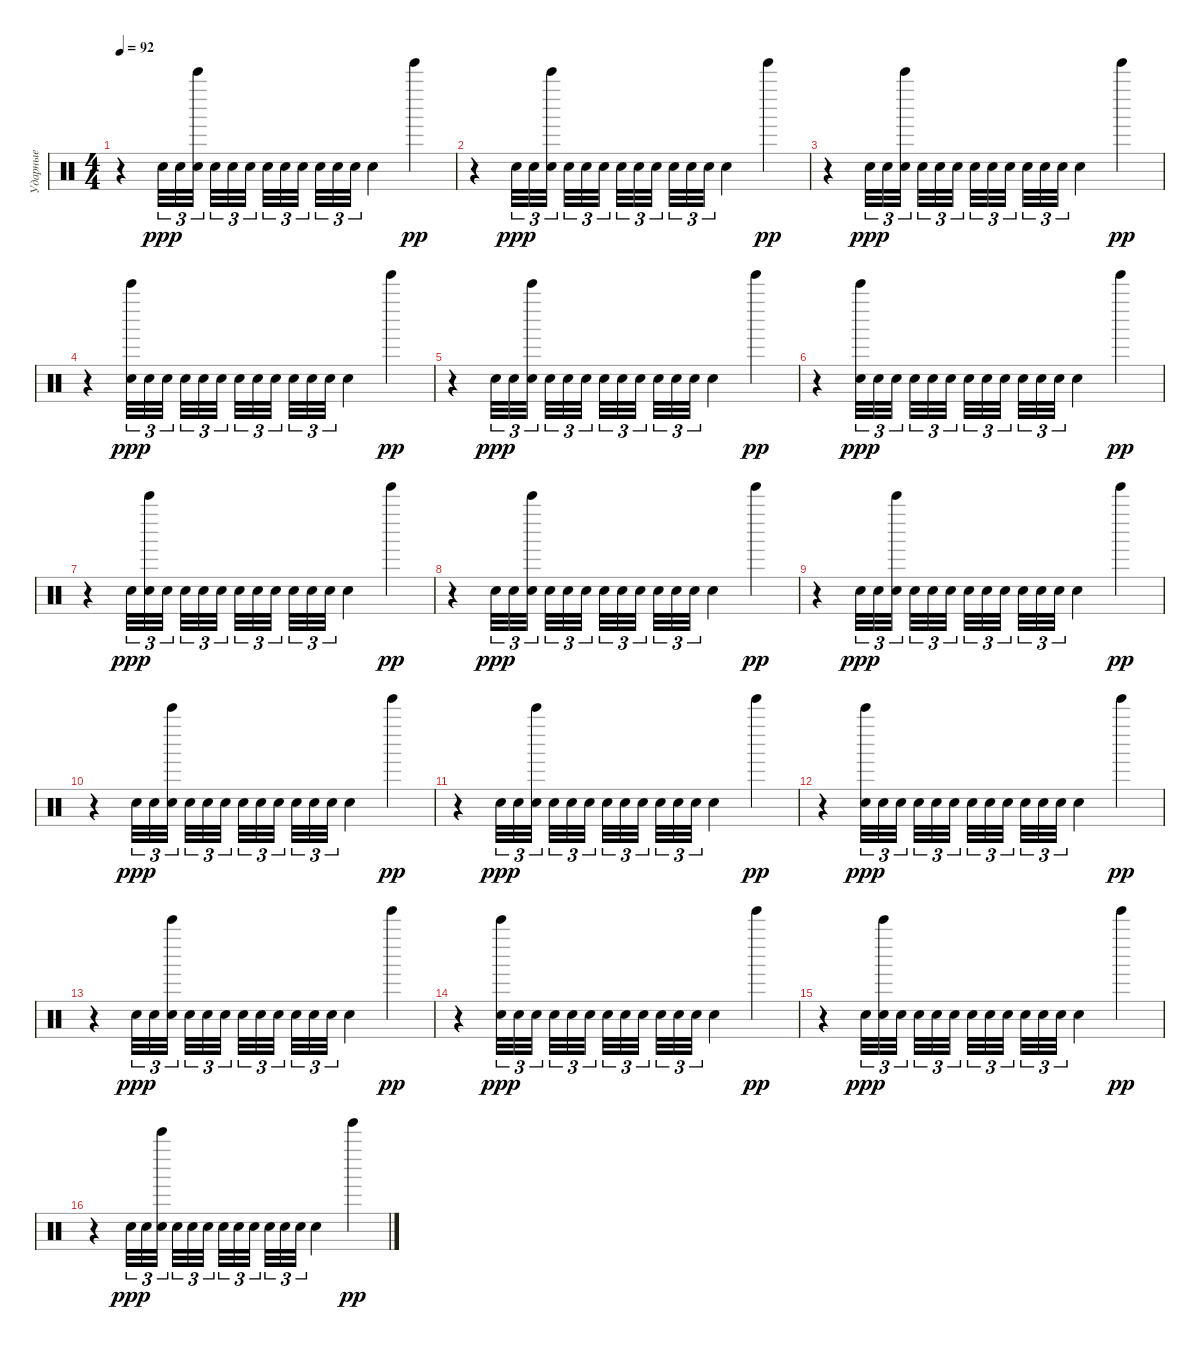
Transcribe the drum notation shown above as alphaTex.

\track ("Ударные" "Ударные") {instrument percussion}
\staff {score}
\articulation defaults
\ts (4 4)
\tempo 92
\clef neutral
\ks c
r.4{dy pp} "Electric Snare (hit)".32{tu (3 2) dy ppp} "Electric Snare (hit)".32{tu (3 2)} ("Bell Tree (hit)" "Electric Snare (hit)").32{tu (3 2) beam splitsecondary} "Electric Snare (hit)".32{tu (3 2)} "Electric Snare (hit)".32{tu (3 2)} "Electric Snare (hit)".32{tu (3 2) beam splitsecondary} "Electric Snare (hit)".32{tu (3 2)} "Electric Snare (hit)".32{tu (3 2)} "Electric Snare (hit)".32{tu (3 2) beam splitsecondary} "Electric Snare (hit)".32{tu (3 2)} "Electric Snare (hit)".32{tu (3 2)} "Electric Snare (hit)".32{tu (3 2)} "Electric Snare (hit)".4 "Tinkle Bell (hit)".4{dy pp} |
r.4 "Electric Snare (hit)".32{tu (3 2) dy ppp} "Electric Snare (hit)".32{tu (3 2)} ("Bell Tree (hit)" "Electric Snare (hit)").32{tu (3 2) beam splitsecondary} "Electric Snare (hit)".32{tu (3 2)} "Electric Snare (hit)".32{tu (3 2)} "Electric Snare (hit)".32{tu (3 2) beam splitsecondary} "Electric Snare (hit)".32{tu (3 2)} "Electric Snare (hit)".32{tu (3 2)} "Electric Snare (hit)".32{tu (3 2) beam splitsecondary} "Electric Snare (hit)".32{tu (3 2)} "Electric Snare (hit)".32{tu (3 2)} "Electric Snare (hit)".32{tu (3 2)} "Electric Snare (hit)".4 "Tinkle Bell (hit)".4{dy pp} |
r.4 "Electric Snare (hit)".32{tu (3 2) dy ppp} "Electric Snare (hit)".32{tu (3 2)} ("Bell Tree (hit)" "Electric Snare (hit)").32{tu (3 2) beam splitsecondary} "Electric Snare (hit)".32{tu (3 2)} "Electric Snare (hit)".32{tu (3 2)} "Electric Snare (hit)".32{tu (3 2) beam splitsecondary} "Electric Snare (hit)".32{tu (3 2)} "Electric Snare (hit)".32{tu (3 2)} "Electric Snare (hit)".32{tu (3 2) beam splitsecondary} "Electric Snare (hit)".32{tu (3 2)} "Electric Snare (hit)".32{tu (3 2)} "Electric Snare (hit)".32{tu (3 2)} "Electric Snare (hit)".4 "Tinkle Bell (hit)".4{dy pp} |
r.4 ("Bell Tree (hit)" "Electric Snare (hit)").32{tu (3 2) dy ppp} "Electric Snare (hit)".32{tu (3 2)} "Electric Snare (hit)".32{tu (3 2) beam splitsecondary} "Electric Snare (hit)".32{tu (3 2)} "Electric Snare (hit)".32{tu (3 2)} "Electric Snare (hit)".32{tu (3 2) beam splitsecondary} "Electric Snare (hit)".32{tu (3 2)} "Electric Snare (hit)".32{tu (3 2)} "Electric Snare (hit)".32{tu (3 2) beam splitsecondary} "Electric Snare (hit)".32{tu (3 2)} "Electric Snare (hit)".32{tu (3 2)} "Electric Snare (hit)".32{tu (3 2)} "Electric Snare (hit)".4 "Tinkle Bell (hit)".4{dy pp} |
r.4 "Electric Snare (hit)".32{tu (3 2) dy ppp} "Electric Snare (hit)".32{tu (3 2)} ("Bell Tree (hit)" "Electric Snare (hit)").32{tu (3 2) beam splitsecondary} "Electric Snare (hit)".32{tu (3 2)} "Electric Snare (hit)".32{tu (3 2)} "Electric Snare (hit)".32{tu (3 2) beam splitsecondary} "Electric Snare (hit)".32{tu (3 2)} "Electric Snare (hit)".32{tu (3 2)} "Electric Snare (hit)".32{tu (3 2) beam splitsecondary} "Electric Snare (hit)".32{tu (3 2)} "Electric Snare (hit)".32{tu (3 2)} "Electric Snare (hit)".32{tu (3 2)} "Electric Snare (hit)".4 "Tinkle Bell (hit)".4{dy pp} |
r.4 ("Bell Tree (hit)" "Electric Snare (hit)").32{tu (3 2) dy ppp} "Electric Snare (hit)".32{tu (3 2)} "Electric Snare (hit)".32{tu (3 2) beam splitsecondary} "Electric Snare (hit)".32{tu (3 2)} "Electric Snare (hit)".32{tu (3 2)} "Electric Snare (hit)".32{tu (3 2) beam splitsecondary} "Electric Snare (hit)".32{tu (3 2)} "Electric Snare (hit)".32{tu (3 2)} "Electric Snare (hit)".32{tu (3 2) beam splitsecondary} "Electric Snare (hit)".32{tu (3 2)} "Electric Snare (hit)".32{tu (3 2)} "Electric Snare (hit)".32{tu (3 2)} "Electric Snare (hit)".4 "Tinkle Bell (hit)".4{dy pp} |
r.4 "Electric Snare (hit)".32{tu (3 2) dy ppp} ("Bell Tree (hit)" "Electric Snare (hit)").32{tu (3 2)} "Electric Snare (hit)".32{tu (3 2) beam splitsecondary} "Electric Snare (hit)".32{tu (3 2)} "Electric Snare (hit)".32{tu (3 2)} "Electric Snare (hit)".32{tu (3 2) beam splitsecondary} "Electric Snare (hit)".32{tu (3 2)} "Electric Snare (hit)".32{tu (3 2)} "Electric Snare (hit)".32{tu (3 2) beam splitsecondary} "Electric Snare (hit)".32{tu (3 2)} "Electric Snare (hit)".32{tu (3 2)} "Electric Snare (hit)".32{tu (3 2)} "Electric Snare (hit)".4 "Tinkle Bell (hit)".4{dy pp} |
r.4 "Electric Snare (hit)".32{tu (3 2) dy ppp} "Electric Snare (hit)".32{tu (3 2)} ("Bell Tree (hit)" "Electric Snare (hit)").32{tu (3 2) beam splitsecondary} "Electric Snare (hit)".32{tu (3 2)} "Electric Snare (hit)".32{tu (3 2)} "Electric Snare (hit)".32{tu (3 2) beam splitsecondary} "Electric Snare (hit)".32{tu (3 2)} "Electric Snare (hit)".32{tu (3 2)} "Electric Snare (hit)".32{tu (3 2) beam splitsecondary} "Electric Snare (hit)".32{tu (3 2)} "Electric Snare (hit)".32{tu (3 2)} "Electric Snare (hit)".32{tu (3 2)} "Electric Snare (hit)".4 "Tinkle Bell (hit)".4{dy pp} |
r.4 "Electric Snare (hit)".32{tu (3 2) dy ppp} "Electric Snare (hit)".32{tu (3 2)} ("Bell Tree (hit)" "Electric Snare (hit)").32{tu (3 2) beam splitsecondary} "Electric Snare (hit)".32{tu (3 2)} "Electric Snare (hit)".32{tu (3 2)} "Electric Snare (hit)".32{tu (3 2) beam splitsecondary} "Electric Snare (hit)".32{tu (3 2)} "Electric Snare (hit)".32{tu (3 2)} "Electric Snare (hit)".32{tu (3 2) beam splitsecondary} "Electric Snare (hit)".32{tu (3 2)} "Electric Snare (hit)".32{tu (3 2)} "Electric Snare (hit)".32{tu (3 2)} "Electric Snare (hit)".4 "Tinkle Bell (hit)".4{dy pp} |
r.4 "Electric Snare (hit)".32{tu (3 2) dy ppp} "Electric Snare (hit)".32{tu (3 2)} ("Bell Tree (hit)" "Electric Snare (hit)").32{tu (3 2) beam splitsecondary} "Electric Snare (hit)".32{tu (3 2)} "Electric Snare (hit)".32{tu (3 2)} "Electric Snare (hit)".32{tu (3 2) beam splitsecondary} "Electric Snare (hit)".32{tu (3 2)} "Electric Snare (hit)".32{tu (3 2)} "Electric Snare (hit)".32{tu (3 2) beam splitsecondary} "Electric Snare (hit)".32{tu (3 2)} "Electric Snare (hit)".32{tu (3 2)} "Electric Snare (hit)".32{tu (3 2)} "Electric Snare (hit)".4 "Tinkle Bell (hit)".4{dy pp} |
r.4 "Electric Snare (hit)".32{tu (3 2) dy ppp} "Electric Snare (hit)".32{tu (3 2)} ("Bell Tree (hit)" "Electric Snare (hit)").32{tu (3 2) beam splitsecondary} "Electric Snare (hit)".32{tu (3 2)} "Electric Snare (hit)".32{tu (3 2)} "Electric Snare (hit)".32{tu (3 2) beam splitsecondary} "Electric Snare (hit)".32{tu (3 2)} "Electric Snare (hit)".32{tu (3 2)} "Electric Snare (hit)".32{tu (3 2) beam splitsecondary} "Electric Snare (hit)".32{tu (3 2)} "Electric Snare (hit)".32{tu (3 2)} "Electric Snare (hit)".32{tu (3 2)} "Electric Snare (hit)".4 "Tinkle Bell (hit)".4{dy pp} |
r.4 ("Bell Tree (hit)" "Electric Snare (hit)").32{tu (3 2) dy ppp} "Electric Snare (hit)".32{tu (3 2)} "Electric Snare (hit)".32{tu (3 2) beam splitsecondary} "Electric Snare (hit)".32{tu (3 2)} "Electric Snare (hit)".32{tu (3 2)} "Electric Snare (hit)".32{tu (3 2) beam splitsecondary} "Electric Snare (hit)".32{tu (3 2)} "Electric Snare (hit)".32{tu (3 2)} "Electric Snare (hit)".32{tu (3 2) beam splitsecondary} "Electric Snare (hit)".32{tu (3 2)} "Electric Snare (hit)".32{tu (3 2)} "Electric Snare (hit)".32{tu (3 2)} "Electric Snare (hit)".4 "Tinkle Bell (hit)".4{dy pp} |
r.4 "Electric Snare (hit)".32{tu (3 2) dy ppp} "Electric Snare (hit)".32{tu (3 2)} ("Bell Tree (hit)" "Electric Snare (hit)").32{tu (3 2) beam splitsecondary} "Electric Snare (hit)".32{tu (3 2)} "Electric Snare (hit)".32{tu (3 2)} "Electric Snare (hit)".32{tu (3 2) beam splitsecondary} "Electric Snare (hit)".32{tu (3 2)} "Electric Snare (hit)".32{tu (3 2)} "Electric Snare (hit)".32{tu (3 2) beam splitsecondary} "Electric Snare (hit)".32{tu (3 2)} "Electric Snare (hit)".32{tu (3 2)} "Electric Snare (hit)".32{tu (3 2)} "Electric Snare (hit)".4 "Tinkle Bell (hit)".4{dy pp} |
r.4 ("Bell Tree (hit)" "Electric Snare (hit)").32{tu (3 2) dy ppp} "Electric Snare (hit)".32{tu (3 2)} "Electric Snare (hit)".32{tu (3 2) beam splitsecondary} "Electric Snare (hit)".32{tu (3 2)} "Electric Snare (hit)".32{tu (3 2)} "Electric Snare (hit)".32{tu (3 2) beam splitsecondary} "Electric Snare (hit)".32{tu (3 2)} "Electric Snare (hit)".32{tu (3 2)} "Electric Snare (hit)".32{tu (3 2) beam splitsecondary} "Electric Snare (hit)".32{tu (3 2)} "Electric Snare (hit)".32{tu (3 2)} "Electric Snare (hit)".32{tu (3 2)} "Electric Snare (hit)".4 "Tinkle Bell (hit)".4{dy pp} |
r.4 "Electric Snare (hit)".32{tu (3 2) dy ppp} ("Bell Tree (hit)" "Electric Snare (hit)").32{tu (3 2)} "Electric Snare (hit)".32{tu (3 2) beam splitsecondary} "Electric Snare (hit)".32{tu (3 2)} "Electric Snare (hit)".32{tu (3 2)} "Electric Snare (hit)".32{tu (3 2) beam splitsecondary} "Electric Snare (hit)".32{tu (3 2)} "Electric Snare (hit)".32{tu (3 2)} "Electric Snare (hit)".32{tu (3 2) beam splitsecondary} "Electric Snare (hit)".32{tu (3 2)} "Electric Snare (hit)".32{tu (3 2)} "Electric Snare (hit)".32{tu (3 2)} "Electric Snare (hit)".4 "Tinkle Bell (hit)".4{dy pp} |
r.4 "Electric Snare (hit)".32{tu (3 2) dy ppp} "Electric Snare (hit)".32{tu (3 2)} ("Bell Tree (hit)" "Electric Snare (hit)").32{tu (3 2) beam splitsecondary} "Electric Snare (hit)".32{tu (3 2)} "Electric Snare (hit)".32{tu (3 2)} "Electric Snare (hit)".32{tu (3 2) beam splitsecondary} "Electric Snare (hit)".32{tu (3 2)} "Electric Snare (hit)".32{tu (3 2)} "Electric Snare (hit)".32{tu (3 2) beam splitsecondary} "Electric Snare (hit)".32{tu (3 2)} "Electric Snare (hit)".32{tu (3 2)} "Electric Snare (hit)".32{tu (3 2)} "Electric Snare (hit)".4 "Tinkle Bell (hit)".4{dy pp}
